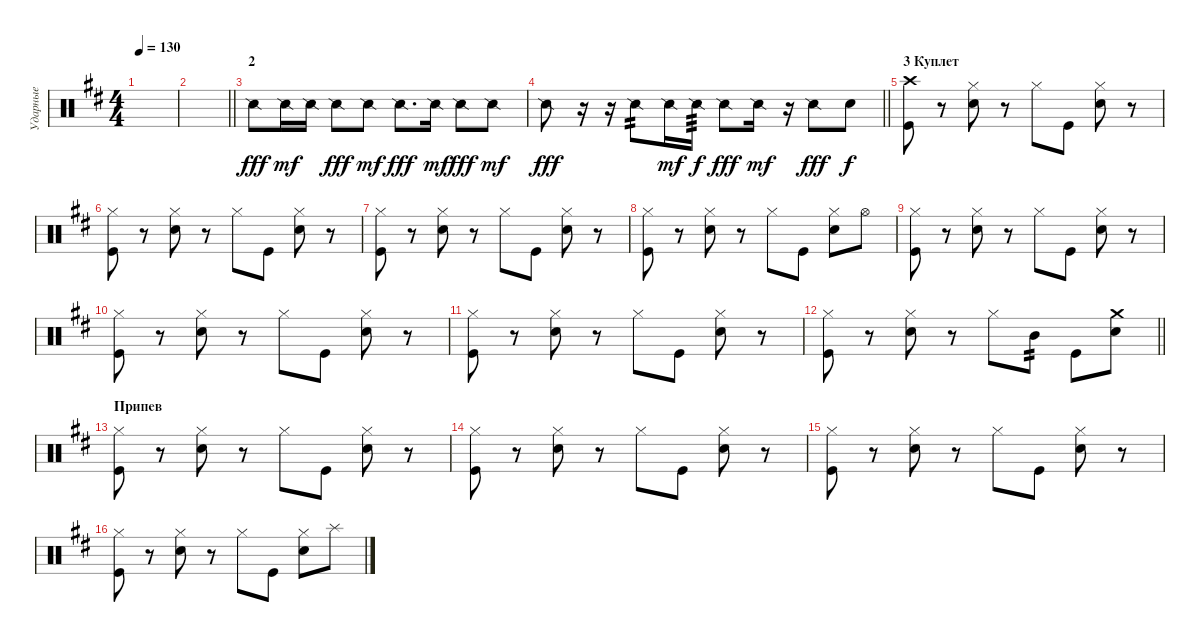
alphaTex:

\track ("Ударные" "Ударные") {instrument percussion}
\staff {score}
\articulation defaults
\ts (4 4)
\tempo 130
\clef neutral
\ks bminor
|
\barLineRight lightlight
|
\section ("" "2")
"Snare (side stick) 2".8{dy fff} "Snare (side stick) 2".16{dy mf} "Snare (side stick) 2".16 "Snare (side stick) 2".8{dy fff} "Snare (side stick) 2".8{dy mf} "Snare (side stick) 2".8{d dy fff} "Snare (side stick) 2".16{dy mf} "Snare (side stick) 2".8{dy fff} "Snare (side stick) 2".8{dy mf} |
\barLineRight lightlight "Snare (side stick) 2".8{dy fff}
r.16 r.16 "Snare (side stick) 2".8{tp 2} "Snare (side stick) 2".16{dy mf} "Snare (side stick) 2".16{tp 3 dy f} "Snare (side stick) 2".8{dy fff} "Snare (side stick) 2".16{dy mf} r.16 "Snare (side stick) 2".8{dy fff} "Snare (hit) 2".8{dy f} |
\section ("" "3 Куплет")
("Crash high (hit)" "Kick (hit)").8 r.8 ("Hi-Hat (closed)" "Snare (hit) 2").8 r.8 "Hi-Hat (closed)".8 "Kick (hit)".8 ("Hi-Hat (closed)" "Snare (hit) 2").8 r.8 |
("Hi-Hat (closed)" "Kick (hit)").8 r.8 ("Hi-Hat (closed)" "Snare (hit) 2").8 r.8 "Hi-Hat (closed)".8 "Kick (hit)".8 ("Hi-Hat (closed)" "Snare (hit) 2").8 r.8 |
("Hi-Hat (closed)" "Kick (hit)").8 r.8 ("Hi-Hat (closed)" "Snare (hit) 2").8 r.8 "Hi-Hat (closed)".8 "Kick (hit)".8 ("Hi-Hat (closed)" "Snare (hit) 2").8 r.8 |
("Hi-Hat (closed)" "Kick (hit)").8 r.8 ("Hi-Hat (closed)" "Snare (hit) 2").8 r.8 "Hi-Hat (closed)".8 "Kick (hit)".8 ("Hi-Hat (closed)" "Snare (hit) 2").8 "Hi-Hat (open)".8 |
("Hi-Hat (closed)" "Kick (hit)").8 r.8 ("Hi-Hat (closed)" "Snare (hit) 2").8 r.8 "Hi-Hat (closed)".8 "Kick (hit)".8 ("Hi-Hat (closed)" "Snare (hit) 2").8 r.8 |
("Hi-Hat (closed)" "Kick (hit)").8 r.8 ("Hi-Hat (closed)" "Snare (hit) 2").8 r.8 "Hi-Hat (closed)".8 "Kick (hit)".8 ("Hi-Hat (closed)" "Snare (hit) 2").8 r.8 |
("Hi-Hat (closed)" "Kick (hit)").8 r.8 ("Hi-Hat (closed)" "Snare (hit) 2").8 r.8 "Hi-Hat (closed)".8 "Kick (hit)".8 ("Hi-Hat (closed)" "Snare (hit) 2").8 r.8 |
\barLineRight lightlight
("Hi-Hat (closed)" "Kick (hit)").8 r.8 ("Hi-Hat (closed)" "Snare (hit) 2").8 r.8 "Hi-Hat (closed)".8 "Mid Tom (hit)".8{tp 2} "Kick (hit)".8 ("Crash medium (hit)" "Snare (hit) 2").8 |
\section ("" "Припев")
("Hi-Hat (closed)" "Kick (hit)").8 r.8 ("Hi-Hat (closed)" "Snare (hit) 2").8 r.8 "Hi-Hat (closed)".8 "Kick (hit)".8 ("Hi-Hat (closed)" "Snare (hit) 2").8 r.8 |
("Hi-Hat (closed)" "Kick (hit)").8 r.8 ("Hi-Hat (closed)" "Snare (hit) 2").8 r.8 "Hi-Hat (closed)".8 "Kick (hit)".8 ("Hi-Hat (closed)" "Snare (hit) 2").8 r.8 |
("Hi-Hat (closed)" "Kick (hit)").8 r.8 ("Hi-Hat (closed)" "Snare (hit) 2").8 r.8 "Hi-Hat (closed)".8 "Kick (hit)".8 ("Hi-Hat (closed)" "Snare (hit) 2").8 r.8 |
("Hi-Hat (closed)" "Kick (hit)").8 r.8 ("Hi-Hat (closed)" "Snare (hit) 2").8 r.8 "Hi-Hat (closed)".8 "Kick (hit)".8 ("Hi-Hat (closed)" "Snare (hit) 2").8 "Splash (hit)".8
